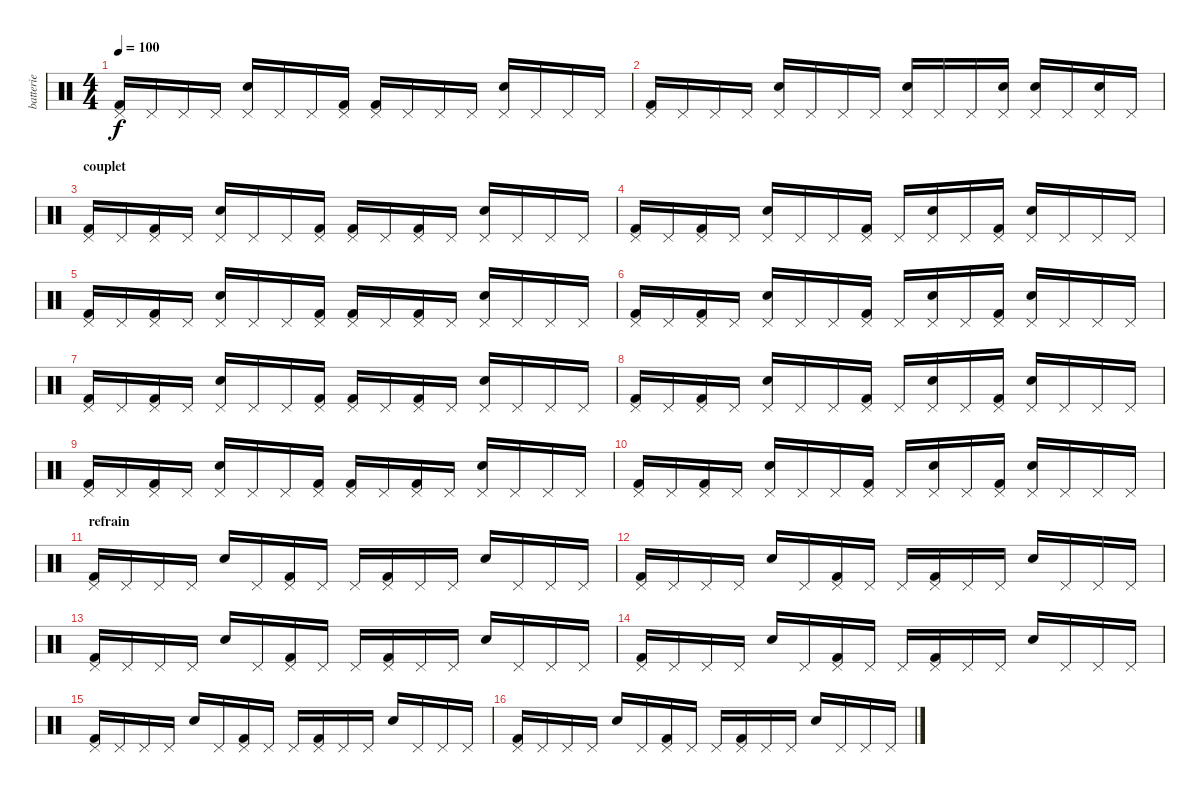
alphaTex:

\track ("batterie" "batterie") {instrument percussion}
\staff {score}
\articulation defaults
\ts (4 4)
\tempo 100
\clef neutral
\ks c
("Pedal Hi-Hat (hit)" "Kick (hit) 2").16{dy f} "Pedal Hi-Hat (hit)".16 "Pedal Hi-Hat (hit)".16 "Pedal Hi-Hat (hit)".16 ("Pedal Hi-Hat (hit)" "Snare (hit) 2").16 "Pedal Hi-Hat (hit)".16 "Pedal Hi-Hat (hit)".16 ("Pedal Hi-Hat (hit)" "Kick (hit) 2").16 ("Pedal Hi-Hat (hit)" "Kick (hit) 2").16 "Pedal Hi-Hat (hit)".16 "Pedal Hi-Hat (hit)".16 "Pedal Hi-Hat (hit)".16 ("Pedal Hi-Hat (hit)" "Snare (hit) 2").16 "Pedal Hi-Hat (hit)".16 "Pedal Hi-Hat (hit)".16 "Pedal Hi-Hat (hit)".16 |
("Pedal Hi-Hat (hit)" "Kick (hit) 2").16 "Pedal Hi-Hat (hit)".16 "Pedal Hi-Hat (hit)".16 "Pedal Hi-Hat (hit)".16 ("Pedal Hi-Hat (hit)" "Snare (hit) 2").16 "Pedal Hi-Hat (hit)".16 "Pedal Hi-Hat (hit)".16 "Pedal Hi-Hat (hit)".16 ("Pedal Hi-Hat (hit)" "Snare (hit) 2").16 "Pedal Hi-Hat (hit)".16 "Pedal Hi-Hat (hit)".16 ("Pedal Hi-Hat (hit)" "Snare (hit) 2").16 ("Pedal Hi-Hat (hit)" "Snare (hit) 2").16 "Pedal Hi-Hat (hit)".16 ("Pedal Hi-Hat (hit)" "Snare (hit) 2").16 "Pedal Hi-Hat (hit)".16 |
\section ("" "couplet")
("Pedal Hi-Hat (hit)" "Kick (hit) 2").16 "Pedal Hi-Hat (hit)".16 ("Pedal Hi-Hat (hit)" "Kick (hit) 2").16 "Pedal Hi-Hat (hit)".16 ("Pedal Hi-Hat (hit)" "Snare (hit) 2").16 "Pedal Hi-Hat (hit)".16 "Pedal Hi-Hat (hit)".16 ("Pedal Hi-Hat (hit)" "Kick (hit) 2").16 ("Pedal Hi-Hat (hit)" "Kick (hit) 2").16 "Pedal Hi-Hat (hit)".16 ("Pedal Hi-Hat (hit)" "Kick (hit) 2").16 "Pedal Hi-Hat (hit)".16 ("Pedal Hi-Hat (hit)" "Snare (hit) 2").16 "Pedal Hi-Hat (hit)".16 "Pedal Hi-Hat (hit)".16 "Pedal Hi-Hat (hit)".16 |
("Pedal Hi-Hat (hit)" "Kick (hit) 2").16 "Pedal Hi-Hat (hit)".16 ("Pedal Hi-Hat (hit)" "Kick (hit) 2").16 "Pedal Hi-Hat (hit)".16 ("Pedal Hi-Hat (hit)" "Snare (hit) 2").16 "Pedal Hi-Hat (hit)".16 "Pedal Hi-Hat (hit)".16 ("Pedal Hi-Hat (hit)" "Kick (hit) 2").16 "Pedal Hi-Hat (hit)".16 ("Pedal Hi-Hat (hit)" "Snare (hit) 2").16 "Pedal Hi-Hat (hit)".16 ("Pedal Hi-Hat (hit)" "Kick (hit) 2").16 ("Pedal Hi-Hat (hit)" "Snare (hit) 2").16 "Pedal Hi-Hat (hit)".16 "Pedal Hi-Hat (hit)".16 "Pedal Hi-Hat (hit)".16 |
("Pedal Hi-Hat (hit)" "Kick (hit) 2").16 "Pedal Hi-Hat (hit)".16 ("Pedal Hi-Hat (hit)" "Kick (hit) 2").16 "Pedal Hi-Hat (hit)".16 ("Pedal Hi-Hat (hit)" "Snare (hit) 2").16 "Pedal Hi-Hat (hit)".16 "Pedal Hi-Hat (hit)".16 ("Pedal Hi-Hat (hit)" "Kick (hit) 2").16 ("Pedal Hi-Hat (hit)" "Kick (hit) 2").16 "Pedal Hi-Hat (hit)".16 ("Pedal Hi-Hat (hit)" "Kick (hit) 2").16 "Pedal Hi-Hat (hit)".16 ("Pedal Hi-Hat (hit)" "Snare (hit) 2").16 "Pedal Hi-Hat (hit)".16 "Pedal Hi-Hat (hit)".16 "Pedal Hi-Hat (hit)".16 |
("Pedal Hi-Hat (hit)" "Kick (hit) 2").16 "Pedal Hi-Hat (hit)".16 ("Pedal Hi-Hat (hit)" "Kick (hit) 2").16 "Pedal Hi-Hat (hit)".16 ("Pedal Hi-Hat (hit)" "Snare (hit) 2").16 "Pedal Hi-Hat (hit)".16 "Pedal Hi-Hat (hit)".16 ("Pedal Hi-Hat (hit)" "Kick (hit) 2").16 "Pedal Hi-Hat (hit)".16 ("Pedal Hi-Hat (hit)" "Snare (hit) 2").16 "Pedal Hi-Hat (hit)".16 ("Pedal Hi-Hat (hit)" "Kick (hit) 2").16 ("Pedal Hi-Hat (hit)" "Snare (hit) 2").16 "Pedal Hi-Hat (hit)".16 "Pedal Hi-Hat (hit)".16 "Pedal Hi-Hat (hit)".16 |
("Pedal Hi-Hat (hit)" "Kick (hit) 2").16 "Pedal Hi-Hat (hit)".16 ("Pedal Hi-Hat (hit)" "Kick (hit) 2").16 "Pedal Hi-Hat (hit)".16 ("Pedal Hi-Hat (hit)" "Snare (hit) 2").16 "Pedal Hi-Hat (hit)".16 "Pedal Hi-Hat (hit)".16 ("Pedal Hi-Hat (hit)" "Kick (hit) 2").16 ("Pedal Hi-Hat (hit)" "Kick (hit) 2").16 "Pedal Hi-Hat (hit)".16 ("Pedal Hi-Hat (hit)" "Kick (hit) 2").16 "Pedal Hi-Hat (hit)".16 ("Pedal Hi-Hat (hit)" "Snare (hit) 2").16 "Pedal Hi-Hat (hit)".16 "Pedal Hi-Hat (hit)".16 "Pedal Hi-Hat (hit)".16 |
("Pedal Hi-Hat (hit)" "Kick (hit) 2").16 "Pedal Hi-Hat (hit)".16 ("Pedal Hi-Hat (hit)" "Kick (hit) 2").16 "Pedal Hi-Hat (hit)".16 ("Pedal Hi-Hat (hit)" "Snare (hit) 2").16 "Pedal Hi-Hat (hit)".16 "Pedal Hi-Hat (hit)".16 ("Pedal Hi-Hat (hit)" "Kick (hit) 2").16 "Pedal Hi-Hat (hit)".16 ("Pedal Hi-Hat (hit)" "Snare (hit) 2").16 "Pedal Hi-Hat (hit)".16 ("Pedal Hi-Hat (hit)" "Kick (hit) 2").16 ("Pedal Hi-Hat (hit)" "Snare (hit) 2").16 "Pedal Hi-Hat (hit)".16 "Pedal Hi-Hat (hit)".16 "Pedal Hi-Hat (hit)".16 |
("Pedal Hi-Hat (hit)" "Kick (hit) 2").16 "Pedal Hi-Hat (hit)".16 ("Pedal Hi-Hat (hit)" "Kick (hit) 2").16 "Pedal Hi-Hat (hit)".16 ("Pedal Hi-Hat (hit)" "Snare (hit) 2").16 "Pedal Hi-Hat (hit)".16 "Pedal Hi-Hat (hit)".16 ("Pedal Hi-Hat (hit)" "Kick (hit) 2").16 ("Pedal Hi-Hat (hit)" "Kick (hit) 2").16 "Pedal Hi-Hat (hit)".16 ("Pedal Hi-Hat (hit)" "Kick (hit) 2").16 "Pedal Hi-Hat (hit)".16 ("Pedal Hi-Hat (hit)" "Snare (hit) 2").16 "Pedal Hi-Hat (hit)".16 "Pedal Hi-Hat (hit)".16 "Pedal Hi-Hat (hit)".16 |
("Pedal Hi-Hat (hit)" "Kick (hit) 2").16 "Pedal Hi-Hat (hit)".16 ("Pedal Hi-Hat (hit)" "Kick (hit) 2").16 "Pedal Hi-Hat (hit)".16 ("Pedal Hi-Hat (hit)" "Snare (hit) 2").16 "Pedal Hi-Hat (hit)".16 "Pedal Hi-Hat (hit)".16 ("Pedal Hi-Hat (hit)" "Kick (hit) 2").16 "Pedal Hi-Hat (hit)".16 ("Pedal Hi-Hat (hit)" "Snare (hit) 2").16 "Pedal Hi-Hat (hit)".16 ("Pedal Hi-Hat (hit)" "Kick (hit) 2").16 ("Pedal Hi-Hat (hit)" "Snare (hit) 2").16 "Pedal Hi-Hat (hit)".16 "Pedal Hi-Hat (hit)".16 "Pedal Hi-Hat (hit)".16 |
\section ("" "refrain")
("Pedal Hi-Hat (hit)" "Kick (hit) 2").16 "Pedal Hi-Hat (hit)".16 "Pedal Hi-Hat (hit)".16 "Pedal Hi-Hat (hit)".16 "Snare (hit) 2".16 "Pedal Hi-Hat (hit)".16 ("Pedal Hi-Hat (hit)" "Kick (hit) 2").16 "Pedal Hi-Hat (hit)".16 "Pedal Hi-Hat (hit)".16 ("Pedal Hi-Hat (hit)" "Kick (hit) 2").16 "Pedal Hi-Hat (hit)".16 "Pedal Hi-Hat (hit)".16 "Snare (hit) 2".16 "Pedal Hi-Hat (hit)".16 "Pedal Hi-Hat (hit)".16 "Pedal Hi-Hat (hit)".16 |
("Pedal Hi-Hat (hit)" "Kick (hit) 2").16 "Pedal Hi-Hat (hit)".16 "Pedal Hi-Hat (hit)".16 "Pedal Hi-Hat (hit)".16 "Snare (hit) 2".16 "Pedal Hi-Hat (hit)".16 ("Pedal Hi-Hat (hit)" "Kick (hit) 2").16 "Pedal Hi-Hat (hit)".16 "Pedal Hi-Hat (hit)".16 ("Pedal Hi-Hat (hit)" "Kick (hit) 2").16 "Pedal Hi-Hat (hit)".16 "Pedal Hi-Hat (hit)".16 "Snare (hit) 2".16 "Pedal Hi-Hat (hit)".16 "Pedal Hi-Hat (hit)".16 "Pedal Hi-Hat (hit)".16 |
("Pedal Hi-Hat (hit)" "Kick (hit) 2").16 "Pedal Hi-Hat (hit)".16 "Pedal Hi-Hat (hit)".16 "Pedal Hi-Hat (hit)".16 "Snare (hit) 2".16 "Pedal Hi-Hat (hit)".16 ("Pedal Hi-Hat (hit)" "Kick (hit) 2").16 "Pedal Hi-Hat (hit)".16 "Pedal Hi-Hat (hit)".16 ("Pedal Hi-Hat (hit)" "Kick (hit) 2").16 "Pedal Hi-Hat (hit)".16 "Pedal Hi-Hat (hit)".16 "Snare (hit) 2".16 "Pedal Hi-Hat (hit)".16 "Pedal Hi-Hat (hit)".16 "Pedal Hi-Hat (hit)".16 |
("Pedal Hi-Hat (hit)" "Kick (hit) 2").16 "Pedal Hi-Hat (hit)".16 "Pedal Hi-Hat (hit)".16 "Pedal Hi-Hat (hit)".16 "Snare (hit) 2".16 "Pedal Hi-Hat (hit)".16 ("Pedal Hi-Hat (hit)" "Kick (hit) 2").16 "Pedal Hi-Hat (hit)".16 "Pedal Hi-Hat (hit)".16 ("Pedal Hi-Hat (hit)" "Kick (hit) 2").16 "Pedal Hi-Hat (hit)".16 "Pedal Hi-Hat (hit)".16 "Snare (hit) 2".16 "Pedal Hi-Hat (hit)".16 "Pedal Hi-Hat (hit)".16 "Pedal Hi-Hat (hit)".16 |
("Pedal Hi-Hat (hit)" "Kick (hit) 2").16 "Pedal Hi-Hat (hit)".16 "Pedal Hi-Hat (hit)".16 "Pedal Hi-Hat (hit)".16 "Snare (hit) 2".16 "Pedal Hi-Hat (hit)".16 ("Pedal Hi-Hat (hit)" "Kick (hit) 2").16 "Pedal Hi-Hat (hit)".16 "Pedal Hi-Hat (hit)".16 ("Pedal Hi-Hat (hit)" "Kick (hit) 2").16 "Pedal Hi-Hat (hit)".16 "Pedal Hi-Hat (hit)".16 "Snare (hit) 2".16 "Pedal Hi-Hat (hit)".16 "Pedal Hi-Hat (hit)".16 "Pedal Hi-Hat (hit)".16 |
("Pedal Hi-Hat (hit)" "Kick (hit) 2").16 "Pedal Hi-Hat (hit)".16 "Pedal Hi-Hat (hit)".16 "Pedal Hi-Hat (hit)".16 "Snare (hit) 2".16 "Pedal Hi-Hat (hit)".16 ("Pedal Hi-Hat (hit)" "Kick (hit) 2").16 "Pedal Hi-Hat (hit)".16 "Pedal Hi-Hat (hit)".16 ("Pedal Hi-Hat (hit)" "Kick (hit) 2").16 "Pedal Hi-Hat (hit)".16 "Pedal Hi-Hat (hit)".16 "Snare (hit) 2".16 "Pedal Hi-Hat (hit)".16 "Pedal Hi-Hat (hit)".16 "Pedal Hi-Hat (hit)".16
